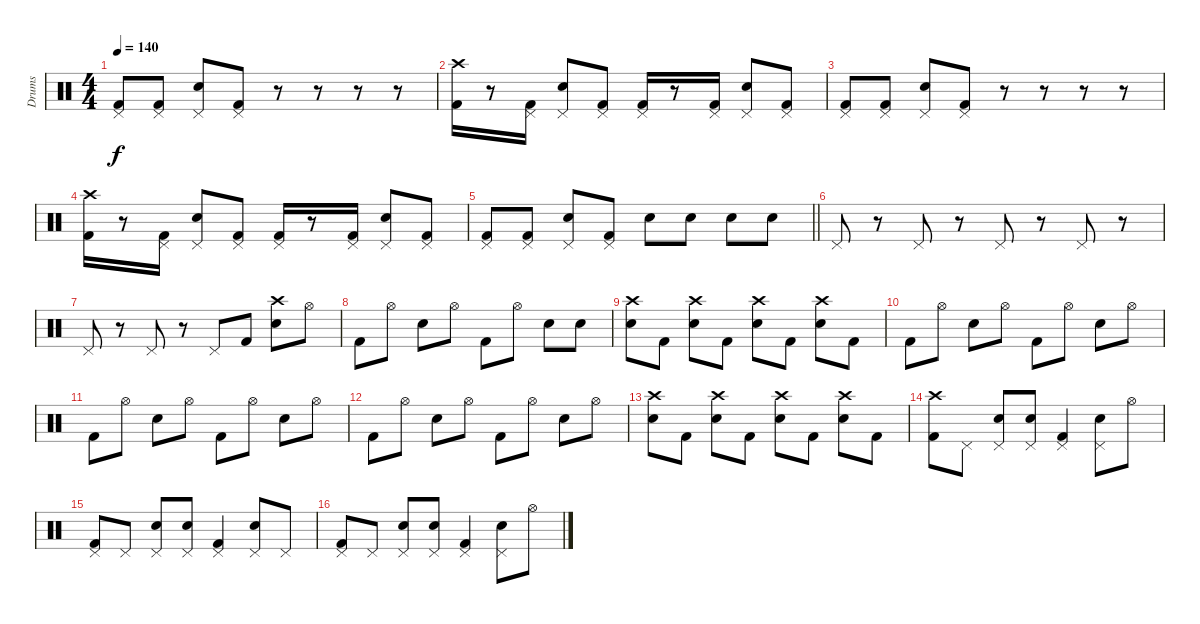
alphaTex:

\track ("Drums" "Drums") {instrument percussion}
\staff {score}
\articulation defaults
\ts (4 4)
\tempo 140
\clef neutral
\ks c
("Kick (hit) 2" "Pedal Hi-Hat (hit)").8{dy f} ("Kick (hit) 2" "Pedal Hi-Hat (hit)").8 ("Snare (hit) 2" "Pedal Hi-Hat (hit)").8 ("Kick (hit) 2" "Pedal Hi-Hat (hit)").8 r.8 r.8 r.8 r.8 |
("Kick (hit) 2" "Crash high (hit)").16 r.8 ("Kick (hit) 2" "Pedal Hi-Hat (hit)").16 ("Snare (hit) 2" "Pedal Hi-Hat (hit)").8 ("Kick (hit) 2" "Pedal Hi-Hat (hit)").8 ("Kick (hit) 2" "Pedal Hi-Hat (hit)").16 r.8 ("Kick (hit) 2" "Pedal Hi-Hat (hit)").16 ("Snare (hit) 2" "Pedal Hi-Hat (hit)").8 ("Kick (hit) 2" "Pedal Hi-Hat (hit)").8 |
("Kick (hit) 2" "Pedal Hi-Hat (hit)").8 ("Kick (hit) 2" "Pedal Hi-Hat (hit)").8 ("Snare (hit) 2" "Pedal Hi-Hat (hit)").8 ("Kick (hit) 2" "Pedal Hi-Hat (hit)").8 r.8 r.8 r.8 r.8 |
("Kick (hit) 2" "Crash high (hit)").16 r.8 ("Kick (hit) 2" "Pedal Hi-Hat (hit)").16 ("Snare (hit) 2" "Pedal Hi-Hat (hit)").8 ("Kick (hit) 2" "Pedal Hi-Hat (hit)").8 ("Kick (hit) 2" "Pedal Hi-Hat (hit)").16 r.8 ("Kick (hit) 2" "Pedal Hi-Hat (hit)").16 ("Snare (hit) 2" "Pedal Hi-Hat (hit)").8 ("Kick (hit) 2" "Pedal Hi-Hat (hit)").8 |
\barLineRight lightlight
("Kick (hit) 2" "Pedal Hi-Hat (hit)").8 ("Kick (hit) 2" "Pedal Hi-Hat (hit)").8 ("Snare (hit) 2" "Pedal Hi-Hat (hit)").8 ("Kick (hit) 2" "Pedal Hi-Hat (hit)").8 "Snare (hit) 2".8 "Snare (hit) 2".8 "Snare (hit) 2".8 "Snare (hit) 2".8 |
"Pedal Hi-Hat (hit)".8 r.8 "Pedal Hi-Hat (hit)".8 r.8 "Pedal Hi-Hat (hit)".8 r.8 "Pedal Hi-Hat (hit)".8 r.8 |
"Pedal Hi-Hat (hit)".8 r.8 "Pedal Hi-Hat (hit)".8 r.8 "Pedal Hi-Hat (hit)".8 "Kick (hit) 2".8 ("Snare (hit) 2" "Crash high (hit)").8 "Hi-Hat (open)".8 |
"Kick (hit) 2".8 "Hi-Hat (open)".8 "Snare (hit) 2".8 "Hi-Hat (open)".8 "Kick (hit) 2".8 "Hi-Hat (open)".8 "Snare (hit) 2".8 "Snare (hit) 2".8 |
("Snare (hit) 2" "Crash high (hit)").8 "Kick (hit) 2".8 ("Snare (hit) 2" "Crash high (hit)").8 "Kick (hit) 2".8 ("Snare (hit) 2" "Crash high (hit)").8 "Kick (hit) 2".8 ("Snare (hit) 2" "Crash high (hit)").8 "Kick (hit) 2".8 |
"Kick (hit) 2".8 "Hi-Hat (open)".8 "Snare (hit) 2".8 "Hi-Hat (open)".8 "Kick (hit) 2".8 "Hi-Hat (open)".8 "Snare (hit) 2".8 "Hi-Hat (open)".8 |
"Kick (hit) 2".8 "Hi-Hat (open)".8 "Snare (hit) 2".8 "Hi-Hat (open)".8 "Kick (hit) 2".8 "Hi-Hat (open)".8 "Snare (hit) 2".8 "Hi-Hat (open)".8 |
"Kick (hit) 2".8 "Hi-Hat (open)".8 "Snare (hit) 2".8 "Hi-Hat (open)".8 "Kick (hit) 2".8 "Hi-Hat (open)".8 "Snare (hit) 2".8 "Hi-Hat (open)".8 |
("Snare (hit) 2" "Crash high (hit)").8 "Kick (hit) 2".8 ("Snare (hit) 2" "Crash high (hit)").8 "Kick (hit) 2".8 ("Snare (hit) 2" "Crash high (hit)").8 "Kick (hit) 2".8 ("Snare (hit) 2" "Crash high (hit)").8 "Kick (hit) 2".8 |
("Crash high (hit)" "Kick (hit) 2").8 "Pedal Hi-Hat (hit)".8 ("Snare (hit) 2" "Pedal Hi-Hat (hit)").8 ("Snare (hit) 2" "Pedal Hi-Hat (hit)").8 ("Kick (hit) 2" "Pedal Hi-Hat (hit)").4 ("Snare (hit) 2" "Pedal Hi-Hat (hit)").8 "Hi-Hat (open)".8 |
("Kick (hit) 2" "Pedal Hi-Hat (hit)").8 "Pedal Hi-Hat (hit)".8 ("Snare (hit) 2" "Pedal Hi-Hat (hit)").8 ("Snare (hit) 2" "Pedal Hi-Hat (hit)").8 ("Kick (hit) 2" "Pedal Hi-Hat (hit)").4 ("Snare (hit) 2" "Pedal Hi-Hat (hit)").8 "Pedal Hi-Hat (hit)".8 |
("Kick (hit) 2" "Pedal Hi-Hat (hit)").8 "Pedal Hi-Hat (hit)".8 ("Snare (hit) 2" "Pedal Hi-Hat (hit)").8 ("Snare (hit) 2" "Pedal Hi-Hat (hit)").8 ("Kick (hit) 2" "Pedal Hi-Hat (hit)").4 ("Snare (hit) 2" "Pedal Hi-Hat (hit)").8 "Hi-Hat (open)".8
